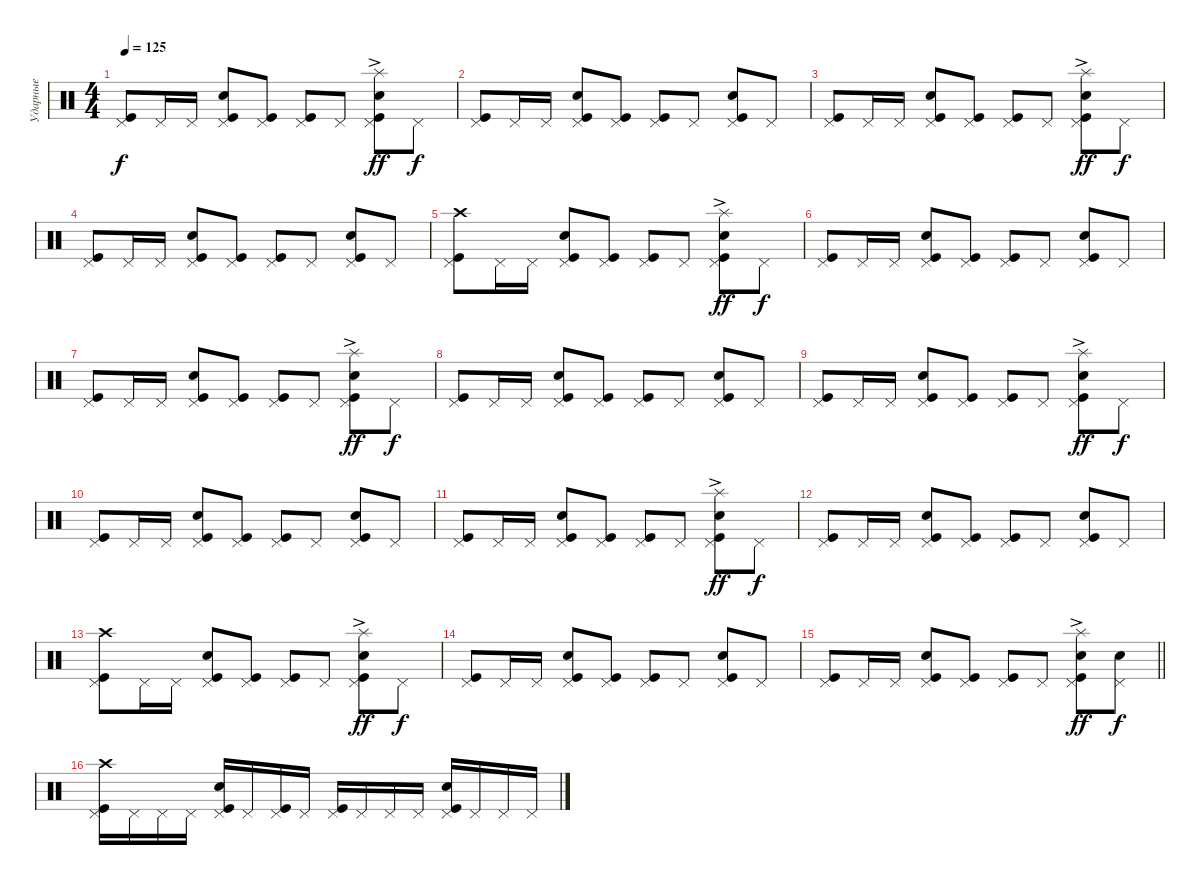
\track ("Ударные" "Ударные") {instrument percussion}
\staff {score}
\articulation defaults
\ts (4 4)
\tempo 125
\clef neutral
\ks c
("Pedal Hi-Hat (hit)" "Kick (hit)").8{dy f} "Pedal Hi-Hat (hit)".16 "Pedal Hi-Hat (hit)".16 ("Pedal Hi-Hat (hit)" "Kick (hit)" "Snare (hit) 2").8 ("Pedal Hi-Hat (hit)" "Kick (hit)").8 ("Pedal Hi-Hat (hit)" "Kick (hit)").8 "Pedal Hi-Hat (hit)".8 ("Pedal Hi-Hat (hit)" "Kick (hit)" "Snare (hit) 2" "Splash (hit)"{ac}).8{dy ff} "Pedal Hi-Hat (hit)".8{dy f} |
("Pedal Hi-Hat (hit)" "Kick (hit)").8 "Pedal Hi-Hat (hit)".16 "Pedal Hi-Hat (hit)".16 ("Pedal Hi-Hat (hit)" "Kick (hit)" "Snare (hit) 2").8 ("Pedal Hi-Hat (hit)" "Kick (hit)").8 ("Pedal Hi-Hat (hit)" "Kick (hit)").8 "Pedal Hi-Hat (hit)".8 ("Pedal Hi-Hat (hit)" "Kick (hit)" "Snare (hit) 2").8 "Pedal Hi-Hat (hit)".8 |
("Pedal Hi-Hat (hit)" "Kick (hit)").8 "Pedal Hi-Hat (hit)".16 "Pedal Hi-Hat (hit)".16 ("Pedal Hi-Hat (hit)" "Kick (hit)" "Snare (hit) 2").8 ("Pedal Hi-Hat (hit)" "Kick (hit)").8 ("Pedal Hi-Hat (hit)" "Kick (hit)").8 "Pedal Hi-Hat (hit)".8 ("Pedal Hi-Hat (hit)" "Kick (hit)" "Snare (hit) 2" "Splash (hit)"{ac}).8{dy ff} "Pedal Hi-Hat (hit)".8{dy f} |
("Pedal Hi-Hat (hit)" "Kick (hit)").8 "Pedal Hi-Hat (hit)".16 "Pedal Hi-Hat (hit)".16 ("Pedal Hi-Hat (hit)" "Kick (hit)" "Snare (hit) 2").8 ("Pedal Hi-Hat (hit)" "Kick (hit)").8 ("Pedal Hi-Hat (hit)" "Kick (hit)").8 "Pedal Hi-Hat (hit)".8 ("Pedal Hi-Hat (hit)" "Kick (hit)" "Snare (hit) 2").8 "Pedal Hi-Hat (hit)".8 |
("Pedal Hi-Hat (hit)" "Kick (hit)" "Crash high (hit)").8 "Pedal Hi-Hat (hit)".16 "Pedal Hi-Hat (hit)".16 ("Pedal Hi-Hat (hit)" "Kick (hit)" "Snare (hit) 2").8 ("Pedal Hi-Hat (hit)" "Kick (hit)").8 ("Pedal Hi-Hat (hit)" "Kick (hit)").8 "Pedal Hi-Hat (hit)".8 ("Pedal Hi-Hat (hit)" "Kick (hit)" "Snare (hit) 2" "Splash (hit)"{ac}).8{dy ff} "Pedal Hi-Hat (hit)".8{dy f} |
("Pedal Hi-Hat (hit)" "Kick (hit)").8 "Pedal Hi-Hat (hit)".16 "Pedal Hi-Hat (hit)".16 ("Pedal Hi-Hat (hit)" "Kick (hit)" "Snare (hit) 2").8 ("Pedal Hi-Hat (hit)" "Kick (hit)").8 ("Pedal Hi-Hat (hit)" "Kick (hit)").8 "Pedal Hi-Hat (hit)".8 ("Pedal Hi-Hat (hit)" "Kick (hit)" "Snare (hit) 2").8 "Pedal Hi-Hat (hit)".8 |
("Pedal Hi-Hat (hit)" "Kick (hit)").8 "Pedal Hi-Hat (hit)".16 "Pedal Hi-Hat (hit)".16 ("Pedal Hi-Hat (hit)" "Kick (hit)" "Snare (hit) 2").8 ("Pedal Hi-Hat (hit)" "Kick (hit)").8 ("Pedal Hi-Hat (hit)" "Kick (hit)").8 "Pedal Hi-Hat (hit)".8 ("Pedal Hi-Hat (hit)" "Kick (hit)" "Snare (hit) 2" "Splash (hit)"{ac}).8{dy ff} "Pedal Hi-Hat (hit)".8{dy f} |
("Pedal Hi-Hat (hit)" "Kick (hit)").8 "Pedal Hi-Hat (hit)".16 "Pedal Hi-Hat (hit)".16 ("Pedal Hi-Hat (hit)" "Kick (hit)" "Snare (hit) 2").8 ("Pedal Hi-Hat (hit)" "Kick (hit)").8 ("Pedal Hi-Hat (hit)" "Kick (hit)").8 "Pedal Hi-Hat (hit)".8 ("Pedal Hi-Hat (hit)" "Kick (hit)" "Snare (hit) 2").8 "Pedal Hi-Hat (hit)".8 |
("Pedal Hi-Hat (hit)" "Kick (hit)").8 "Pedal Hi-Hat (hit)".16 "Pedal Hi-Hat (hit)".16 ("Pedal Hi-Hat (hit)" "Kick (hit)" "Snare (hit) 2").8 ("Pedal Hi-Hat (hit)" "Kick (hit)").8 ("Pedal Hi-Hat (hit)" "Kick (hit)").8 "Pedal Hi-Hat (hit)".8 ("Pedal Hi-Hat (hit)" "Kick (hit)" "Snare (hit) 2" "Splash (hit)"{ac}).8{dy ff} "Pedal Hi-Hat (hit)".8{dy f} |
("Pedal Hi-Hat (hit)" "Kick (hit)").8 "Pedal Hi-Hat (hit)".16 "Pedal Hi-Hat (hit)".16 ("Pedal Hi-Hat (hit)" "Kick (hit)" "Snare (hit) 2").8 ("Pedal Hi-Hat (hit)" "Kick (hit)").8 ("Pedal Hi-Hat (hit)" "Kick (hit)").8 "Pedal Hi-Hat (hit)".8 ("Pedal Hi-Hat (hit)" "Kick (hit)" "Snare (hit) 2").8 "Pedal Hi-Hat (hit)".8 |
("Pedal Hi-Hat (hit)" "Kick (hit)").8 "Pedal Hi-Hat (hit)".16 "Pedal Hi-Hat (hit)".16 ("Pedal Hi-Hat (hit)" "Kick (hit)" "Snare (hit) 2").8 ("Pedal Hi-Hat (hit)" "Kick (hit)").8 ("Pedal Hi-Hat (hit)" "Kick (hit)").8 "Pedal Hi-Hat (hit)".8 ("Pedal Hi-Hat (hit)" "Kick (hit)" "Snare (hit) 2" "Splash (hit)"{ac}).8{dy ff} "Pedal Hi-Hat (hit)".8{dy f} |
("Pedal Hi-Hat (hit)" "Kick (hit)").8 "Pedal Hi-Hat (hit)".16 "Pedal Hi-Hat (hit)".16 ("Pedal Hi-Hat (hit)" "Kick (hit)" "Snare (hit) 2").8 ("Pedal Hi-Hat (hit)" "Kick (hit)").8 ("Pedal Hi-Hat (hit)" "Kick (hit)").8 "Pedal Hi-Hat (hit)".8 ("Pedal Hi-Hat (hit)" "Kick (hit)" "Snare (hit) 2").8 "Pedal Hi-Hat (hit)".8 |
("Pedal Hi-Hat (hit)" "Kick (hit)" "Crash high (hit)").8 "Pedal Hi-Hat (hit)".16 "Pedal Hi-Hat (hit)".16 ("Pedal Hi-Hat (hit)" "Kick (hit)" "Snare (hit) 2").8 ("Pedal Hi-Hat (hit)" "Kick (hit)").8 ("Pedal Hi-Hat (hit)" "Kick (hit)").8 "Pedal Hi-Hat (hit)".8 ("Pedal Hi-Hat (hit)" "Kick (hit)" "Snare (hit) 2" "Splash (hit)"{ac}).8{dy ff} "Pedal Hi-Hat (hit)".8{dy f} |
("Pedal Hi-Hat (hit)" "Kick (hit)").8 "Pedal Hi-Hat (hit)".16 "Pedal Hi-Hat (hit)".16 ("Pedal Hi-Hat (hit)" "Kick (hit)" "Snare (hit) 2").8 ("Pedal Hi-Hat (hit)" "Kick (hit)").8 ("Pedal Hi-Hat (hit)" "Kick (hit)").8 "Pedal Hi-Hat (hit)".8 ("Pedal Hi-Hat (hit)" "Kick (hit)" "Snare (hit) 2").8 "Pedal Hi-Hat (hit)".8 |
\barLineRight lightlight
("Pedal Hi-Hat (hit)" "Kick (hit)").8 "Pedal Hi-Hat (hit)".16 "Pedal Hi-Hat (hit)".16 ("Pedal Hi-Hat (hit)" "Kick (hit)" "Snare (hit) 2").8 ("Pedal Hi-Hat (hit)" "Kick (hit)").8 ("Pedal Hi-Hat (hit)" "Kick (hit)").8 "Pedal Hi-Hat (hit)".8 ("Pedal Hi-Hat (hit)" "Kick (hit)" "Snare (hit) 2" "Splash (hit)"{ac}).8{dy ff} ("Pedal Hi-Hat (hit)" "Hand Clap (hit)").8{dy f} |
("Pedal Hi-Hat (hit)" "Kick (hit)" "Crash high (hit)").16 "Pedal Hi-Hat (hit)".16 "Pedal Hi-Hat (hit)".16 "Pedal Hi-Hat (hit)".16 ("Pedal Hi-Hat (hit)" "Kick (hit)" "Snare (hit) 2").16 "Pedal Hi-Hat (hit)".16 ("Pedal Hi-Hat (hit)" "Kick (hit)").16 "Pedal Hi-Hat (hit)".16 ("Pedal Hi-Hat (hit)" "Kick (hit)").16 "Pedal Hi-Hat (hit)".16 "Pedal Hi-Hat (hit)".16 "Pedal Hi-Hat (hit)".16 ("Pedal Hi-Hat (hit)" "Kick (hit)" "Snare (hit) 2").16 "Pedal Hi-Hat (hit)".16 "Pedal Hi-Hat (hit)".16 "Pedal Hi-Hat (hit)".16
